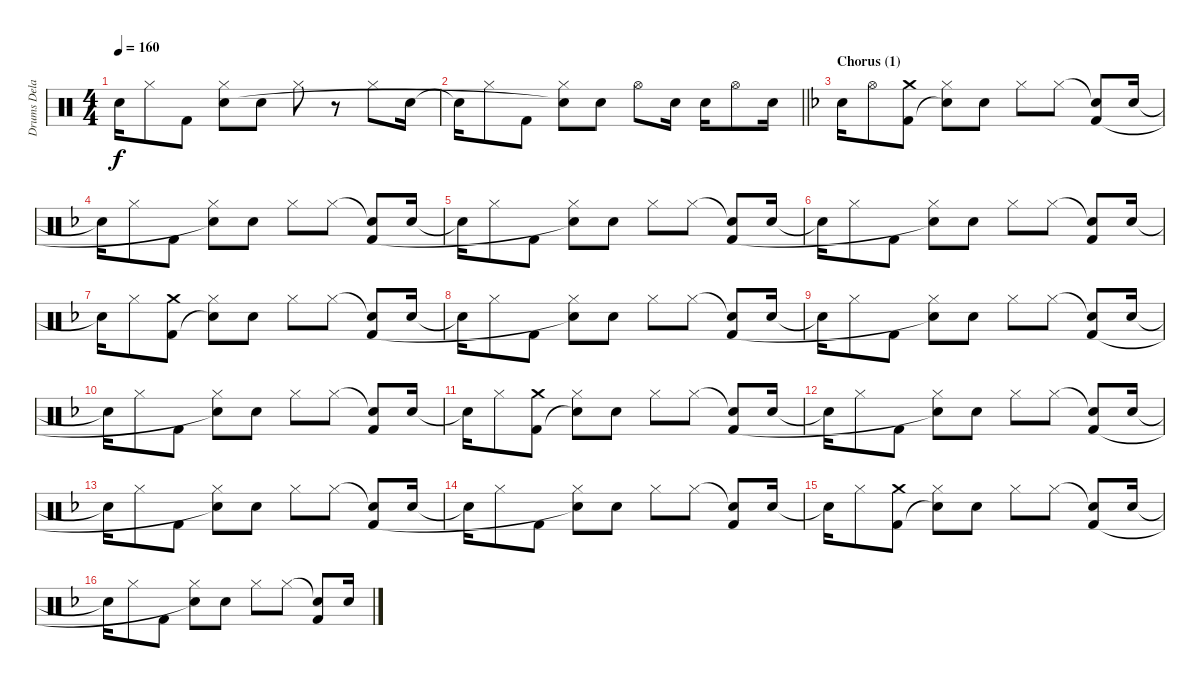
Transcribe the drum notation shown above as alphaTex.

\track ("Drums Delay 2" "Drums Dela") {instrument percussion}
\staff {score}
\articulation defaults
\ts (4 4)
\tempo 160
\clef neutral
\ks c "Snare (hit)"{t}.16{dy f} "Hi-Hat (closed)".8 "Kick (hit) 2".8
("Hi-Hat (closed)" "Snare (hit)"{t}).8 "Electric Snare (hit)".8 "Hi-Hat (closed)".8 r.8 "Hi-Hat (closed)".8 "Electric Snare (hit)".16 |
\barLineRight lightlight "Snare (hit)"{t}.16 "Hi-Hat (closed)".8 "Kick (hit) 2".8
("Hi-Hat (closed)" "Snare (hit)"{t}).8 "Electric Snare (hit)".8 "Hi-Hat (open)".8 "Electric Snare (hit)".16 "Electric Snare (hit)".16 "Hi-Hat (open)".8 "Electric Snare (hit)".16 |
\section ("" "Chorus (1)")
\ks f "Electric Snare (hit)".16 "Hi-Hat (open)".8
("Crash medium (hit)" "Kick (hit) 2").8 ("Hi-Hat (closed)" "Snare (hit)"{t}).8 "Electric Snare (hit)".8 "Hi-Hat (closed)".8 "Hi-Hat (closed)".8 ("Snare (hit)"{t} "Kick (hit) 2").8 "Electric Snare (hit)".16 |
"Snare (hit)"{t}.16 "Hi-Hat (closed)".8 "Kick (hit) 2".8 ("Hi-Hat (closed)" "Snare (hit)"{t}).8 "Electric Snare (hit)".8 "Hi-Hat (closed)".8 "Hi-Hat (closed)".8 ("Snare (hit)"{t} "Kick (hit) 2").8 "Electric Snare (hit)".16 |
"Snare (hit)"{t}.16 "Hi-Hat (closed)".8 "Kick (hit) 2".8 ("Hi-Hat (closed)" "Snare (hit)"{t}).8 "Electric Snare (hit)".8 "Hi-Hat (closed)".8 "Hi-Hat (closed)".8 ("Snare (hit)"{t} "Kick (hit) 2").8 "Electric Snare (hit)".16 |
"Snare (hit)"{t}.16 "Hi-Hat (closed)".8 "Kick (hit) 2".8 ("Hi-Hat (closed)" "Snare (hit)"{t}).8 "Electric Snare (hit)".8 "Hi-Hat (closed)".8 "Hi-Hat (closed)".8 ("Snare (hit)"{t} "Kick (hit) 2").8 "Electric Snare (hit)".16 |
"Snare (hit)"{t}.16 "Hi-Hat (closed)".8 ("Crash medium (hit)" "Kick (hit) 2").8 ("Hi-Hat (closed)" "Snare (hit)"{t}).8 "Electric Snare (hit)".8 "Hi-Hat (closed)".8 "Hi-Hat (closed)".8 ("Snare (hit)"{t} "Kick (hit) 2").8 "Electric Snare (hit)".16 |
"Snare (hit)"{t}.16 "Hi-Hat (closed)".8 "Kick (hit) 2".8 ("Hi-Hat (closed)" "Snare (hit)"{t}).8 "Electric Snare (hit)".8 "Hi-Hat (closed)".8 "Hi-Hat (closed)".8 ("Snare (hit)"{t} "Kick (hit) 2").8 "Electric Snare (hit)".16 |
"Snare (hit)"{t}.16 "Hi-Hat (closed)".8 "Kick (hit) 2".8 ("Hi-Hat (closed)" "Snare (hit)"{t}).8 "Electric Snare (hit)".8 "Hi-Hat (closed)".8 "Hi-Hat (closed)".8 ("Snare (hit)"{t} "Kick (hit) 2").8 "Electric Snare (hit)".16 |
"Snare (hit)"{t}.16 "Hi-Hat (closed)".8 "Kick (hit) 2".8 ("Hi-Hat (closed)" "Snare (hit)"{t}).8 "Electric Snare (hit)".8 "Hi-Hat (closed)".8 "Hi-Hat (closed)".8 ("Snare (hit)"{t} "Kick (hit) 2").8 "Electric Snare (hit)".16 |
"Snare (hit)"{t}.16 "Hi-Hat (closed)".8 ("Crash medium (hit)" "Kick (hit) 2").8 ("Hi-Hat (closed)" "Snare (hit)"{t}).8 "Electric Snare (hit)".8 "Hi-Hat (closed)".8 "Hi-Hat (closed)".8 ("Snare (hit)"{t} "Kick (hit) 2").8 "Electric Snare (hit)".16 |
"Snare (hit)"{t}.16 "Hi-Hat (closed)".8 "Kick (hit) 2".8 ("Hi-Hat (closed)" "Snare (hit)"{t}).8 "Electric Snare (hit)".8 "Hi-Hat (closed)".8 "Hi-Hat (closed)".8 ("Snare (hit)"{t} "Kick (hit) 2").8 "Electric Snare (hit)".16 |
"Snare (hit)"{t}.16 "Hi-Hat (closed)".8 "Kick (hit) 2".8 ("Hi-Hat (closed)" "Snare (hit)"{t}).8 "Electric Snare (hit)".8 "Hi-Hat (closed)".8 "Hi-Hat (closed)".8 ("Snare (hit)"{t} "Kick (hit) 2").8 "Electric Snare (hit)".16 |
"Snare (hit)"{t}.16 "Hi-Hat (closed)".8 "Kick (hit) 2".8 ("Hi-Hat (closed)" "Snare (hit)"{t}).8 "Electric Snare (hit)".8 "Hi-Hat (closed)".8 "Hi-Hat (closed)".8 ("Snare (hit)"{t} "Kick (hit) 2").8 "Electric Snare (hit)".16 |
"Snare (hit)"{t}.16 "Hi-Hat (closed)".8 ("Crash medium (hit)" "Kick (hit) 2").8 ("Hi-Hat (closed)" "Snare (hit)"{t}).8 "Electric Snare (hit)".8 "Hi-Hat (closed)".8 "Hi-Hat (closed)".8 ("Snare (hit)"{t} "Kick (hit) 2").8 "Electric Snare (hit)".16 |
"Snare (hit)"{t}.16 "Hi-Hat (closed)".8 "Kick (hit) 2".8 ("Hi-Hat (closed)" "Snare (hit)"{t}).8 "Electric Snare (hit)".8 "Hi-Hat (closed)".8 "Hi-Hat (closed)".8 ("Snare (hit)"{t} "Kick (hit) 2").8 "Electric Snare (hit)".16
